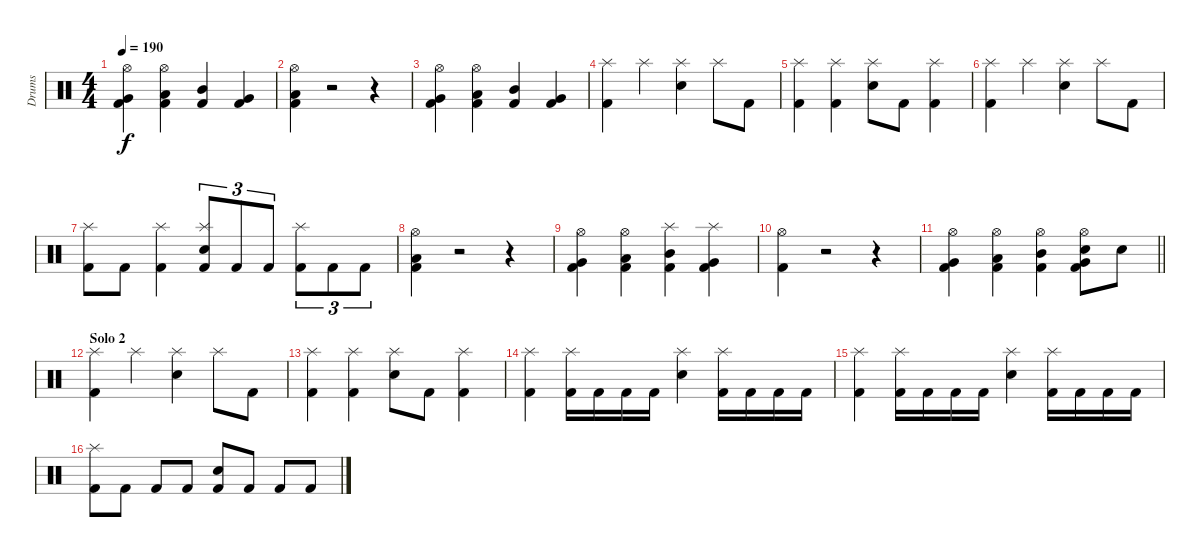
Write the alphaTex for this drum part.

\track ("Drums" "Drums") {instrument percussion}
\staff {score}
\articulation defaults
\ts (4 4)
\tempo 190
\clef neutral
\ks c
("Hi-Hat (open)" "Very Low Tom (hit)" "Kick (hit) 2").4{dy f} ("Hi-Hat (open)" "Low Tom (hit)" "Kick (hit) 2").4 ("Mid Tom (hit)" "Kick (hit) 2").4 ("Very Low Tom (hit)" "Kick (hit) 2").4 |
("Hi-Hat (open)" "Low Tom (hit)" "Kick (hit) 2").4 r.2 r.4 |
("Hi-Hat (open)" "Very Low Tom (hit)" "Kick (hit) 2").4 ("Hi-Hat (open)" "Low Tom (hit)" "Kick (hit) 2").4 ("Mid Tom (hit)" "Kick (hit) 2").4 ("Very Low Tom (hit)" "Kick (hit) 2").4 |
("Splash (hit)" "Kick (hit) 2").4 "Splash (hit)".4 ("Splash (hit)" "Snare (hit) 2").4 "Splash (hit)".8 "Kick (hit) 2".8 |
("Splash (hit)" "Kick (hit) 2").4 ("Splash (hit)" "Kick (hit) 2").4 ("Splash (hit)" "Snare (hit) 2").8 "Kick (hit) 2".8 ("Splash (hit)" "Kick (hit) 2").4 |
("Splash (hit)" "Kick (hit) 2").4 "Splash (hit)".4 ("Splash (hit)" "Snare (hit) 2").4 "Splash (hit)".8 "Kick (hit) 2".8 |
("Splash (hit)" "Kick (hit) 2").8 "Kick (hit) 2".8 ("Splash (hit)" "Kick (hit) 2").4 ("Splash (hit)" "Snare (hit) 2" "Kick (hit) 2").8{tu (3 2)} "Kick (hit) 2".8{tu (3 2)} "Kick (hit) 2".8{tu (3 2)} ("Splash (hit)" "Kick (hit) 2").8{tu (3 2)} "Kick (hit) 2".8{tu (3 2)} "Kick (hit) 2".8{tu (3 2)} |
("Hi-Hat (open)" "Low Tom (hit)" "Kick (hit) 2").4 r.2 r.4 |
("Hi-Hat (open)" "Very Low Tom (hit)" "Kick (hit) 2").4 ("Hi-Hat (open)" "Low Tom (hit)" "Kick (hit) 2").4 ("Splash (hit)" "Mid Tom (hit)" "Kick (hit) 2").4 ("Splash (hit)" "Very Low Tom (hit)" "Kick (hit) 2").4 |
("Hi-Hat (open)" "Kick (hit) 2").4 r.2 r.4 |
\barLineRight lightlight
("Hi-Hat (open)" "Very Low Tom (hit)" "Kick (hit) 2").4 ("Hi-Hat (open)" "Low Tom (hit)" "Kick (hit) 2").4 ("Hi-Hat (open)" "Mid Tom (hit)" "Kick (hit) 2").4 ("Hi-Hat (open)" "Very Low Tom (hit)" "Snare (hit) 2" "Kick (hit) 2").8 "Snare (hit) 2".8 |
\section ("" "Solo 2")
("Splash (hit)" "Kick (hit) 2").4 "Splash (hit)".4 ("Splash (hit)" "Snare (hit) 2").4 "Splash (hit)".8 "Kick (hit) 2".8 |
("Splash (hit)" "Kick (hit) 2").4 ("Splash (hit)" "Kick (hit) 2").4 ("Splash (hit)" "Snare (hit) 2").8 "Kick (hit) 2".8 ("Splash (hit)" "Kick (hit) 2").4 |
("Splash (hit)" "Kick (hit) 2").4 ("Splash (hit)" "Kick (hit) 2").16 "Kick (hit) 2".16 "Kick (hit) 2".16 "Kick (hit) 2".16 ("Splash (hit)" "Snare (hit) 2").4 ("Splash (hit)" "Kick (hit) 2").16 "Kick (hit) 2".16 "Kick (hit) 2".16 "Kick (hit) 2".16 |
("Splash (hit)" "Kick (hit) 2").4 ("Splash (hit)" "Kick (hit) 2").16 "Kick (hit) 2".16 "Kick (hit) 2".16 "Kick (hit) 2".16 ("Splash (hit)" "Snare (hit) 2").4 ("Splash (hit)" "Kick (hit) 2").16 "Kick (hit) 2".16 "Kick (hit) 2".16 "Kick (hit) 2".16 |
("Splash (hit)" "Kick (hit) 2").8 "Kick (hit) 2".8 "Kick (hit) 2".8 "Kick (hit) 2".8 ("Snare (hit) 2" "Kick (hit) 2").8 "Kick (hit) 2".8 "Kick (hit) 2".8 "Kick (hit) 2".8
